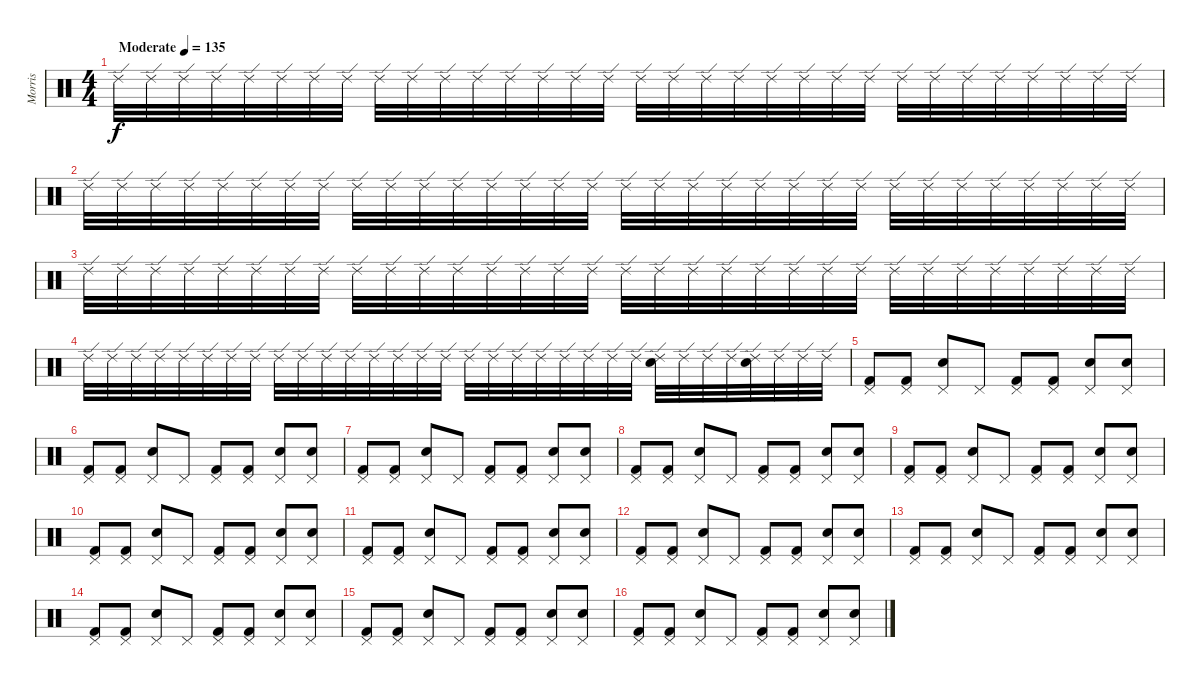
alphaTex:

\track ("Morris" "Morris") {instrument percussion}
\staff {score}
\articulation defaults
\ts (4 4)
\tempo (135 "Moderate")
\clef neutral
\ks c "Ride (edge) 2".32{dy f} "Ride (edge) 2".32 "Ride (edge) 2".32 "Ride (edge) 2".32 "Ride (edge) 2".32 "Ride (edge) 2".32 "Ride (edge) 2".32 "Ride (edge) 2".32 "Ride (edge) 2".32 "Ride (edge) 2".32 "Ride (edge) 2".32 "Ride (edge) 2".32 "Ride (edge) 2".32 "Ride (edge) 2".32 "Ride (edge) 2".32 "Ride (edge) 2".32 "Ride (edge) 2".32 "Ride (edge) 2".32 "Ride (edge) 2".32 "Ride (edge) 2".32 "Ride (edge) 2".32 "Ride (edge) 2".32 "Ride (edge) 2".32 "Ride (edge) 2".32 "Ride (edge) 2".32 "Ride (edge) 2".32 "Ride (edge) 2".32 "Ride (edge) 2".32 "Ride (edge) 2".32 "Ride (edge) 2".32 "Ride (edge) 2".32 "Ride (edge) 2".32
|
"Ride (edge) 2".32 "Ride (edge) 2".32 "Ride (edge) 2".32 "Ride (edge) 2".32 "Ride (edge) 2".32 "Ride (edge) 2".32 "Ride (edge) 2".32 "Ride (edge) 2".32 "Ride (edge) 2".32 "Ride (edge) 2".32 "Ride (edge) 2".32 "Ride (edge) 2".32 "Ride (edge) 2".32 "Ride (edge) 2".32 "Ride (edge) 2".32 "Ride (edge) 2".32 "Ride (edge) 2".32 "Ride (edge) 2".32 "Ride (edge) 2".32 "Ride (edge) 2".32 "Ride (edge) 2".32 "Ride (edge) 2".32 "Ride (edge) 2".32 "Ride (edge) 2".32 "Ride (edge) 2".32 "Ride (edge) 2".32 "Ride (edge) 2".32 "Ride (edge) 2".32 "Ride (edge) 2".32 "Ride (edge) 2".32 "Ride (edge) 2".32 "Ride (edge) 2".32 |
"Ride (edge) 2".32 "Ride (edge) 2".32 "Ride (edge) 2".32 "Ride (edge) 2".32 "Ride (edge) 2".32 "Ride (edge) 2".32 "Ride (edge) 2".32 "Ride (edge) 2".32 "Ride (edge) 2".32 "Ride (edge) 2".32 "Ride (edge) 2".32 "Ride (edge) 2".32 "Ride (edge) 2".32 "Ride (edge) 2".32 "Ride (edge) 2".32 "Ride (edge) 2".32 "Ride (edge) 2".32 "Ride (edge) 2".32 "Ride (edge) 2".32 "Ride (edge) 2".32 "Ride (edge) 2".32 "Ride (edge) 2".32 "Ride (edge) 2".32 "Ride (edge) 2".32 "Ride (edge) 2".32 "Ride (edge) 2".32 "Ride (edge) 2".32 "Ride (edge) 2".32 "Ride (edge) 2".32 "Ride (edge) 2".32 "Ride (edge) 2".32 "Ride (edge) 2".32 |
"Ride (edge) 2".32 "Ride (edge) 2".32 "Ride (edge) 2".32 "Ride (edge) 2".32 "Ride (edge) 2".32 "Ride (edge) 2".32 "Ride (edge) 2".32 "Ride (edge) 2".32 "Ride (edge) 2".32 "Ride (edge) 2".32 "Ride (edge) 2".32 "Ride (edge) 2".32 "Ride (edge) 2".32 "Ride (edge) 2".32 "Ride (edge) 2".32 "Ride (edge) 2".32 "Ride (edge) 2".32 "Ride (edge) 2".32 "Ride (edge) 2".32 "Ride (edge) 2".32 "Ride (edge) 2".32 "Ride (edge) 2".32 "Ride (edge) 2".32 "Ride (edge) 2".32 ("Ride (edge) 2" "Electric Snare (hit)").32 "Ride (edge) 2".32 "Ride (edge) 2".32 "Ride (edge) 2".32 ("Ride (edge) 2" "Electric Snare (hit)").32 "Ride (edge) 2".32 "Ride (edge) 2".32 "Ride (edge) 2".32 |
("Pedal Hi-Hat (hit)" "Kick (hit) 2").8 ("Pedal Hi-Hat (hit)" "Kick (hit) 2").8 ("Pedal Hi-Hat (hit)" "Electric Snare (hit)").8 "Pedal Hi-Hat (hit)".8 ("Pedal Hi-Hat (hit)" "Kick (hit) 2").8 ("Pedal Hi-Hat (hit)" "Kick (hit) 2").8 ("Pedal Hi-Hat (hit)" "Electric Snare (hit)").8 ("Pedal Hi-Hat (hit)" "Electric Snare (hit)").8 |
("Pedal Hi-Hat (hit)" "Kick (hit) 2").8 ("Pedal Hi-Hat (hit)" "Kick (hit) 2").8 ("Pedal Hi-Hat (hit)" "Electric Snare (hit)").8 "Pedal Hi-Hat (hit)".8 ("Pedal Hi-Hat (hit)" "Kick (hit) 2").8 ("Pedal Hi-Hat (hit)" "Kick (hit) 2").8 ("Pedal Hi-Hat (hit)" "Electric Snare (hit)").8 ("Pedal Hi-Hat (hit)" "Electric Snare (hit)").8 |
("Pedal Hi-Hat (hit)" "Kick (hit) 2").8 ("Pedal Hi-Hat (hit)" "Kick (hit) 2").8 ("Pedal Hi-Hat (hit)" "Electric Snare (hit)").8 "Pedal Hi-Hat (hit)".8 ("Pedal Hi-Hat (hit)" "Kick (hit) 2").8 ("Pedal Hi-Hat (hit)" "Kick (hit) 2").8 ("Pedal Hi-Hat (hit)" "Electric Snare (hit)").8 ("Pedal Hi-Hat (hit)" "Electric Snare (hit)").8 |
("Pedal Hi-Hat (hit)" "Kick (hit) 2").8 ("Pedal Hi-Hat (hit)" "Kick (hit) 2").8 ("Pedal Hi-Hat (hit)" "Electric Snare (hit)").8 "Pedal Hi-Hat (hit)".8 ("Pedal Hi-Hat (hit)" "Kick (hit) 2").8 ("Pedal Hi-Hat (hit)" "Kick (hit) 2").8 ("Pedal Hi-Hat (hit)" "Electric Snare (hit)").8 ("Pedal Hi-Hat (hit)" "Electric Snare (hit)").8 |
("Pedal Hi-Hat (hit)" "Kick (hit) 2").8 ("Pedal Hi-Hat (hit)" "Kick (hit) 2").8 ("Pedal Hi-Hat (hit)" "Electric Snare (hit)").8 "Pedal Hi-Hat (hit)".8 ("Pedal Hi-Hat (hit)" "Kick (hit) 2").8 ("Pedal Hi-Hat (hit)" "Kick (hit) 2").8 ("Pedal Hi-Hat (hit)" "Electric Snare (hit)").8 ("Pedal Hi-Hat (hit)" "Electric Snare (hit)").8 |
("Pedal Hi-Hat (hit)" "Kick (hit) 2").8 ("Pedal Hi-Hat (hit)" "Kick (hit) 2").8 ("Pedal Hi-Hat (hit)" "Electric Snare (hit)").8 "Pedal Hi-Hat (hit)".8 ("Pedal Hi-Hat (hit)" "Kick (hit) 2").8 ("Pedal Hi-Hat (hit)" "Kick (hit) 2").8 ("Pedal Hi-Hat (hit)" "Electric Snare (hit)").8 ("Pedal Hi-Hat (hit)" "Electric Snare (hit)").8 |
("Pedal Hi-Hat (hit)" "Kick (hit) 2").8 ("Pedal Hi-Hat (hit)" "Kick (hit) 2").8 ("Pedal Hi-Hat (hit)" "Electric Snare (hit)").8 "Pedal Hi-Hat (hit)".8 ("Pedal Hi-Hat (hit)" "Kick (hit) 2").8 ("Pedal Hi-Hat (hit)" "Kick (hit) 2").8 ("Pedal Hi-Hat (hit)" "Electric Snare (hit)").8 ("Pedal Hi-Hat (hit)" "Electric Snare (hit)").8 |
("Pedal Hi-Hat (hit)" "Kick (hit) 2").8 ("Pedal Hi-Hat (hit)" "Kick (hit) 2").8 ("Pedal Hi-Hat (hit)" "Electric Snare (hit)").8 "Pedal Hi-Hat (hit)".8 ("Pedal Hi-Hat (hit)" "Kick (hit) 2").8 ("Pedal Hi-Hat (hit)" "Kick (hit) 2").8 ("Pedal Hi-Hat (hit)" "Electric Snare (hit)").8 ("Pedal Hi-Hat (hit)" "Electric Snare (hit)").8 |
("Pedal Hi-Hat (hit)" "Kick (hit) 2").8 ("Pedal Hi-Hat (hit)" "Kick (hit) 2").8 ("Pedal Hi-Hat (hit)" "Electric Snare (hit)").8 "Pedal Hi-Hat (hit)".8 ("Pedal Hi-Hat (hit)" "Kick (hit) 2").8 ("Pedal Hi-Hat (hit)" "Kick (hit) 2").8 ("Pedal Hi-Hat (hit)" "Electric Snare (hit)").8 ("Pedal Hi-Hat (hit)" "Electric Snare (hit)").8 |
("Pedal Hi-Hat (hit)" "Kick (hit) 2").8 ("Pedal Hi-Hat (hit)" "Kick (hit) 2").8 ("Pedal Hi-Hat (hit)" "Electric Snare (hit)").8 "Pedal Hi-Hat (hit)".8 ("Pedal Hi-Hat (hit)" "Kick (hit) 2").8 ("Pedal Hi-Hat (hit)" "Kick (hit) 2").8 ("Pedal Hi-Hat (hit)" "Electric Snare (hit)").8 ("Pedal Hi-Hat (hit)" "Electric Snare (hit)").8 |
("Pedal Hi-Hat (hit)" "Kick (hit) 2").8 ("Pedal Hi-Hat (hit)" "Kick (hit) 2").8 ("Pedal Hi-Hat (hit)" "Electric Snare (hit)").8 "Pedal Hi-Hat (hit)".8 ("Pedal Hi-Hat (hit)" "Kick (hit) 2").8 ("Pedal Hi-Hat (hit)" "Kick (hit) 2").8 ("Pedal Hi-Hat (hit)" "Electric Snare (hit)").8 ("Pedal Hi-Hat (hit)" "Electric Snare (hit)").8 |
("Pedal Hi-Hat (hit)" "Kick (hit) 2").8 ("Pedal Hi-Hat (hit)" "Kick (hit) 2").8 ("Pedal Hi-Hat (hit)" "Electric Snare (hit)").8 "Pedal Hi-Hat (hit)".8 ("Pedal Hi-Hat (hit)" "Kick (hit) 2").8 ("Pedal Hi-Hat (hit)" "Kick (hit) 2").8 ("Pedal Hi-Hat (hit)" "Electric Snare (hit)").8 ("Pedal Hi-Hat (hit)" "Electric Snare (hit)").8
